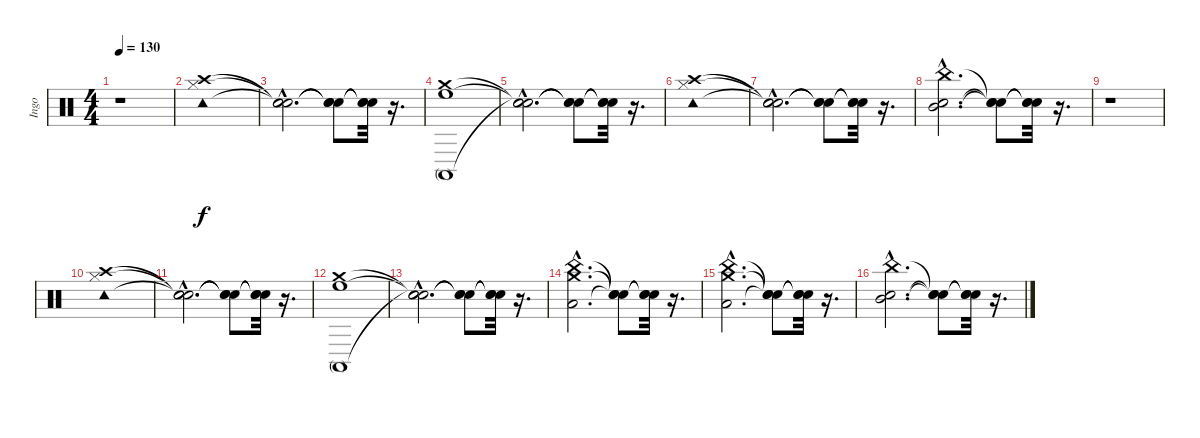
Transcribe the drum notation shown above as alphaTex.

\track ("Ingo" "Ingo") {instrument percussion}
\staff {score}
\articulation defaults
\ts (4 4)
\tempo 130
\clef neutral
\ks c
r.1{dy f} |
("Tambourine (hit)" "Hi-Hat (closed)" "Crash high (hit)").1 |
("Snare (hit)"{hac t} "Snare (hit)"{hac t} "Snare (hit)"{hac t}).2{d} ("Snare (hit)"{t} "Snare (hit)"{t} "Snare (hit)"{t}).8 ("Snare (hit)"{t} "Snare (hit)"{t} "Snare (hit)"{t}).32 r.16{d} |
("Crash medium (hit)" "Conga high (mute)" "High Floor Tom (hit)").1 |
("Snare (hit)"{hac t} "Snare (hit)"{hac t} "Snare (hit)"{hac t}).2{d} ("Snare (hit)"{t} "Snare (hit)"{t} "Snare (hit)"{t}).8 ("Snare (hit)"{t} "Snare (hit)"{t} "Snare (hit)"{t}).32 r.16{d} |
("Tambourine (hit)" "Hi-Hat (closed)" "Crash high (hit)").1 |
("Snare (hit)"{hac t} "Snare (hit)"{hac t} "Snare (hit)"{hac t}).2{d} ("Snare (hit)"{t} "Snare (hit)"{t} "Snare (hit)"{t}).8 ("Snare (hit)"{t} "Snare (hit)"{t} "Snare (hit)"{t}).32 r.16{d} |
("China (hit)"{hac} "Electric Snare (hit)"{hac} "Mid Tom (hit)"{hac}).2{d} ("Snare (hit)"{t} "Snare (hit)"{t} "Snare (hit)"{t}).8 ("Snare (hit)"{t} "Snare (hit)"{t} "Snare (hit)"{t}).32 r.16{d} |
r.1 |
("Tambourine (hit)" "Hi-Hat (closed)" "Crash high (hit)").1 |
("Snare (hit)"{hac t} "Snare (hit)"{hac t} "Snare (hit)"{hac t}).2{d} ("Snare (hit)"{t} "Snare (hit)"{t} "Snare (hit)"{t}).8 ("Snare (hit)"{t} "Snare (hit)"{t} "Snare (hit)"{t}).32 r.16{d} |
("Conga high (mute)" "High Floor Tom (hit)" "Crash medium (hit)").1 |
("Snare (hit)"{hac t} "Snare (hit)"{hac t} "Snare (hit)"{hac t}).2{d} ("Snare (hit)"{t} "Snare (hit)"{t} "Snare (hit)"{t}).8 ("Snare (hit)"{t} "Snare (hit)"{t} "Snare (hit)"{t}).32 r.16{d} |
("Crash medium (hit)"{hac} "Low Tom (hit)"{hac} "China (hit)"{hac}).2{d} ("Snare (hit)"{t} "Snare (hit)"{t} "Snare (hit)"{t}).8 ("Snare (hit)"{t} "Snare (hit)"{t} "Snare (hit)"{t}).32 r.16{d} |
("Crash medium (hit)"{hac} "Low Tom (hit)"{hac} "China (hit)"{hac}).2{d} ("Snare (hit)"{t} "Snare (hit)"{t} "Snare (hit)"{t}).8 ("Snare (hit)"{t} "Snare (hit)"{t} "Snare (hit)"{t}).32 r.16{d} |
("China (hit)"{hac} "Electric Snare (hit)"{hac} "Mid Tom (hit)"{hac}).2{d} ("Snare (hit)"{t} "Snare (hit)"{t} "Snare (hit)"{t}).8 ("Snare (hit)"{t} "Snare (hit)"{t} "Snare (hit)"{t}).32 r.16{d}
